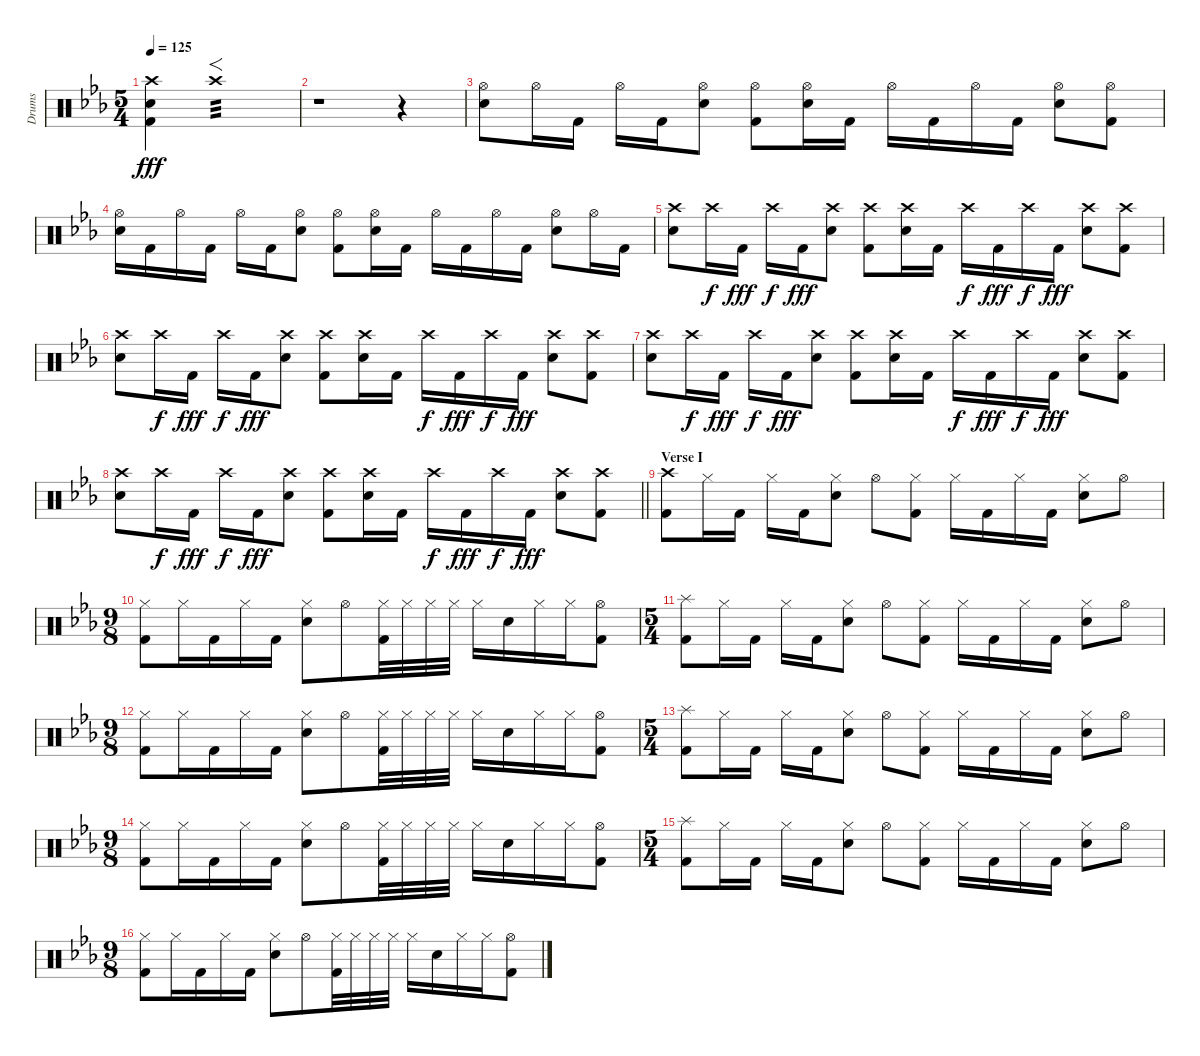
\track ("Drums" "Drums") {instrument percussion}
\staff {score}
\articulation defaults
\ts (5 4)
\tempo 125
\clef neutral
\ks cminor
("Crash high (hit)" "Snare (hit) 2" "Kick (hit) 2").4{dy fff} "Crash high (hit)".1{f tp 3} |
r.1 r.4 |
("Hi-Hat (open)" "Snare (hit) 2").8 "Hi-Hat (open)".16 "Kick (hit) 2".16 "Hi-Hat (open)".16 "Kick (hit) 2".16 ("Hi-Hat (open)" "Snare (hit) 2").8 ("Hi-Hat (open)" "Kick (hit) 2").8 ("Hi-Hat (open)" "Snare (hit) 2").16 "Kick (hit) 2".16 "Hi-Hat (open)".16 "Kick (hit) 2".16 "Hi-Hat (open)".16 "Kick (hit) 2".16 ("Hi-Hat (open)" "Snare (hit) 2").8 ("Hi-Hat (open)" "Kick (hit) 2").8 |
("Hi-Hat (open)" "Snare (hit) 2").16 "Kick (hit) 2".16 "Hi-Hat (open)".16 "Kick (hit) 2".16 "Hi-Hat (open)".16 "Kick (hit) 2".16 ("Hi-Hat (open)" "Snare (hit) 2").8 ("Hi-Hat (open)" "Kick (hit) 2").8 ("Hi-Hat (open)" "Snare (hit) 2").16 "Kick (hit) 2".16 "Hi-Hat (open)".16 "Kick (hit) 2".16 "Hi-Hat (open)".16 "Kick (hit) 2".16 ("Hi-Hat (open)" "Snare (hit) 2").8 "Hi-Hat (open)".16 "Kick (hit) 2".16 |
("Crash high (hit)" "Snare (hit) 2").8 "Crash high (hit)".16{dy f} "Kick (hit) 2".16{dy fff} "Crash high (hit)".16{dy f} "Kick (hit) 2".16{dy fff} ("Crash high (hit)" "Snare (hit) 2").8 ("Crash high (hit)" "Kick (hit) 2").8 ("Crash high (hit)" "Snare (hit) 2").16 "Kick (hit) 2".16 "Crash high (hit)".16{dy f} "Kick (hit) 2".16{dy fff} "Crash high (hit)".16{dy f} "Kick (hit) 2".16{dy fff} ("Crash high (hit)" "Snare (hit) 2").8 ("Crash high (hit)" "Kick (hit) 2").8 |
("Crash high (hit)" "Snare (hit) 2").8 "Crash high (hit)".16{dy f} "Kick (hit) 2".16{dy fff} "Crash high (hit)".16{dy f} "Kick (hit) 2".16{dy fff} ("Crash high (hit)" "Snare (hit) 2").8 ("Crash high (hit)" "Kick (hit) 2").8 ("Crash high (hit)" "Snare (hit) 2").16 "Kick (hit) 2".16 "Crash high (hit)".16{dy f} "Kick (hit) 2".16{dy fff} "Crash high (hit)".16{dy f} "Kick (hit) 2".16{dy fff} ("Crash high (hit)" "Snare (hit) 2").8 ("Crash high (hit)" "Kick (hit) 2").8 |
("Crash high (hit)" "Snare (hit) 2").8 "Crash high (hit)".16{dy f} "Kick (hit) 2".16{dy fff} "Crash high (hit)".16{dy f} "Kick (hit) 2".16{dy fff} ("Crash high (hit)" "Snare (hit) 2").8 ("Crash high (hit)" "Kick (hit) 2").8 ("Crash high (hit)" "Snare (hit) 2").16 "Kick (hit) 2".16 "Crash high (hit)".16{dy f} "Kick (hit) 2".16{dy fff} "Crash high (hit)".16{dy f} "Kick (hit) 2".16{dy fff} ("Crash high (hit)" "Snare (hit) 2").8 ("Crash high (hit)" "Kick (hit) 2").8 |
\barLineRight lightlight
("Crash high (hit)" "Snare (hit) 2").8 "Crash high (hit)".16{dy f} "Kick (hit) 2".16{dy fff} "Crash high (hit)".16{dy f} "Kick (hit) 2".16{dy fff} ("Crash high (hit)" "Snare (hit) 2").8 ("Crash high (hit)" "Kick (hit) 2").8 ("Crash high (hit)" "Snare (hit) 2").16 "Kick (hit) 2".16 "Crash high (hit)".16{dy f} "Kick (hit) 2".16{dy fff} "Crash high (hit)".16{dy f} "Kick (hit) 2".16{dy fff} ("Crash high (hit)" "Snare (hit) 2").8 ("Crash high (hit)" "Kick (hit) 2").8 |
\section ("" "Verse I")
("Crash high (hit)" "Kick (hit) 2").8 "Hi-Hat (closed)".16 "Kick (hit) 2".16 "Hi-Hat (closed)".16 "Kick (hit) 2".16 ("Hi-Hat (closed)" "Snare (hit) 2").8 "Hi-Hat (open)".8 ("Hi-Hat (closed)" "Kick (hit) 2").8 "Hi-Hat (closed)".16 "Kick (hit) 2".16 "Hi-Hat (closed)".16 "Kick (hit) 2".16 ("Hi-Hat (closed)" "Snare (hit) 2").8 "Hi-Hat (open)".8 |
\ts (9 8)
("Hi-Hat (closed)" "Kick (hit) 2").8 "Hi-Hat (closed)".16 "Kick (hit) 2".16 "Hi-Hat (closed)".16 "Kick (hit) 2".16 ("Hi-Hat (closed)" "Snare (hit) 2").8 "Hi-Hat (open)".8 ("Hi-Hat (closed)" "Kick (hit) 2").32 "Hi-Hat (closed)".32 "Hi-Hat (closed)".32 "Hi-Hat (closed)".32 "Hi-Hat (closed)".16 "Snare (hit) 2".16 "Hi-Hat (closed)".16 "Hi-Hat (closed)".16 ("Hi-Hat (open)" "Kick (hit) 2").8 |
\ts (5 4)
("Splash (hit)" "Kick (hit) 2").8 "Hi-Hat (closed)".16 "Kick (hit) 2".16 "Hi-Hat (closed)".16 "Kick (hit) 2".16 ("Hi-Hat (closed)" "Snare (hit) 2").8 "Hi-Hat (open)".8 ("Hi-Hat (closed)" "Kick (hit) 2").8 "Hi-Hat (closed)".16 "Kick (hit) 2".16 "Hi-Hat (closed)".16 "Kick (hit) 2".16 ("Hi-Hat (closed)" "Snare (hit) 2").8 "Hi-Hat (open)".8 |
\ts (9 8)
("Hi-Hat (closed)" "Kick (hit) 2").8 "Hi-Hat (closed)".16 "Kick (hit) 2".16 "Hi-Hat (closed)".16 "Kick (hit) 2".16 ("Hi-Hat (closed)" "Snare (hit) 2").8 "Hi-Hat (open)".8 ("Hi-Hat (closed)" "Kick (hit) 2").32 "Hi-Hat (closed)".32 "Hi-Hat (closed)".32 "Hi-Hat (closed)".32 "Hi-Hat (closed)".16 "Snare (hit) 2".16 "Hi-Hat (closed)".16 "Hi-Hat (closed)".16 ("Hi-Hat (open)" "Kick (hit) 2").8 |
\ts (5 4)
("Splash (hit)" "Kick (hit) 2").8 "Hi-Hat (closed)".16 "Kick (hit) 2".16 "Hi-Hat (closed)".16 "Kick (hit) 2".16 ("Hi-Hat (closed)" "Snare (hit) 2").8 "Hi-Hat (open)".8 ("Hi-Hat (closed)" "Kick (hit) 2").8 "Hi-Hat (closed)".16 "Kick (hit) 2".16 "Hi-Hat (closed)".16 "Kick (hit) 2".16 ("Hi-Hat (closed)" "Snare (hit) 2").8 "Hi-Hat (open)".8 |
\ts (9 8)
("Hi-Hat (closed)" "Kick (hit) 2").8 "Hi-Hat (closed)".16 "Kick (hit) 2".16 "Hi-Hat (closed)".16 "Kick (hit) 2".16 ("Hi-Hat (closed)" "Snare (hit) 2").8 "Hi-Hat (open)".8 ("Hi-Hat (closed)" "Kick (hit) 2").32 "Hi-Hat (closed)".32 "Hi-Hat (closed)".32 "Hi-Hat (closed)".32 "Hi-Hat (closed)".16 "Snare (hit) 2".16 "Hi-Hat (closed)".16 "Hi-Hat (closed)".16 ("Hi-Hat (open)" "Kick (hit) 2").8 |
\ts (5 4)
("Splash (hit)" "Kick (hit) 2").8 "Hi-Hat (closed)".16 "Kick (hit) 2".16 "Hi-Hat (closed)".16 "Kick (hit) 2".16 ("Hi-Hat (closed)" "Snare (hit) 2").8 "Hi-Hat (open)".8 ("Hi-Hat (closed)" "Kick (hit) 2").8 "Hi-Hat (closed)".16 "Kick (hit) 2".16 "Hi-Hat (closed)".16 "Kick (hit) 2".16 ("Hi-Hat (closed)" "Snare (hit) 2").8 "Hi-Hat (open)".8 |
\ts (9 8)
("Hi-Hat (closed)" "Kick (hit) 2").8 "Hi-Hat (closed)".16 "Kick (hit) 2".16 "Hi-Hat (closed)".16 "Kick (hit) 2".16 ("Hi-Hat (closed)" "Snare (hit) 2").8 "Hi-Hat (open)".8 ("Hi-Hat (closed)" "Kick (hit) 2").32 "Hi-Hat (closed)".32 "Hi-Hat (closed)".32 "Hi-Hat (closed)".32 "Hi-Hat (closed)".16 "Snare (hit) 2".16 "Hi-Hat (closed)".16 "Hi-Hat (closed)".16 ("Hi-Hat (open)" "Kick (hit) 2").8
